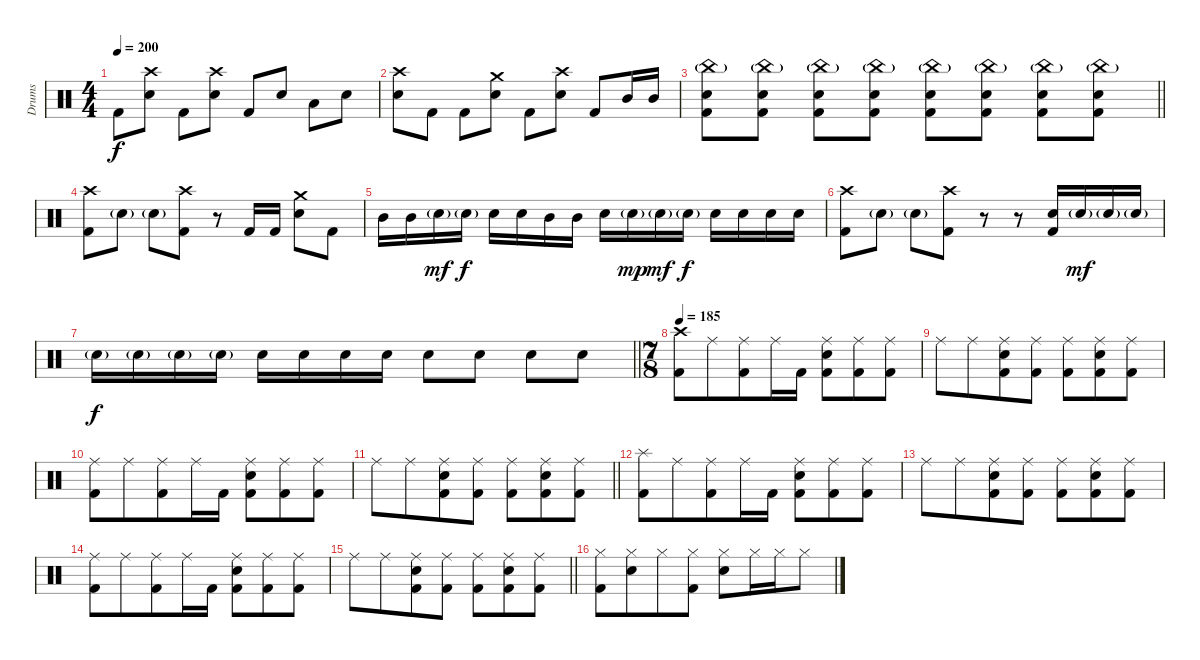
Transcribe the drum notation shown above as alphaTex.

\track ("Drums" "Drums") {instrument percussion}
\staff {score}
\articulation defaults
\ts (4 4)
\tempo 200
\clef neutral
\ks c "Kick (hit) 2".8{dy f}
("Crash high (hit)" "Electric Snare (hit)").8 "Kick (hit) 2".8 ("Crash high (hit)" "Electric Snare (hit)").8 "Kick (hit) 2".8 "Electric Snare (hit)".8 "Low Tom (hit)".8 "Electric Snare (hit)".8 |
("Crash high (hit)" "Electric Snare (hit)").8 "Kick (hit) 2".8 "Kick (hit) 2".8 ("Crash medium (hit)" "Electric Snare (hit)").8 "Kick (hit) 2".8 ("Crash high (hit)" "Electric Snare (hit)").8 "Kick (hit) 2".8 "Mid Tom (hit)".16 "Mid Tom (hit)".16 |
\barLineRight lightlight
("China (hit)"{g} "Electric Snare (hit)" "Kick (hit) 2").8 ("China (hit)"{g} "Electric Snare (hit)" "Kick (hit) 2").8 ("China (hit)"{g} "Electric Snare (hit)" "Kick (hit) 2").8 ("China (hit)"{g} "Electric Snare (hit)" "Kick (hit) 2").8 ("China (hit)"{g} "Electric Snare (hit)" "Kick (hit) 2").8 ("China (hit)"{g} "Electric Snare (hit)" "Kick (hit) 2").8 ("China (hit)"{g} "Electric Snare (hit)" "Kick (hit) 2").8 ("China (hit)"{g} "Electric Snare (hit)" "Kick (hit) 2").8 |
("Crash high (hit)" "Kick (hit) 2").8 "Electric Snare (hit)"{g}.8 "Electric Snare (hit)"{g}.8 ("Crash high (hit)" "Kick (hit) 2").8 r.8 "Kick (hit) 2".16 "Kick (hit) 2".16 ("Crash medium (hit)" "Electric Snare (hit)").8 "Kick (hit) 2".8 |
"Mid Tom (hit)".16 "Mid Tom (hit)".16 "Electric Snare (hit)"{g}.16{dy mf} "Electric Snare (hit)"{g}.16{dy f} "Electric Snare (hit)".16 "Electric Snare (hit)".16 "Mid Tom (hit)".16 "Mid Tom (hit)".16 "Electric Snare (hit)".16 "Electric Snare (hit)"{g}.16{dy mp} "Electric Snare (hit)"{g}.16{dy mf} "Electric Snare (hit)"{g}.16{dy f} "Electric Snare (hit)".16 "Electric Snare (hit)".16 "Electric Snare (hit)".16 "Electric Snare (hit)".16 |
("Crash high (hit)" "Kick (hit) 2").8 "Electric Snare (hit)"{g}.8 "Electric Snare (hit)"{g}.8 ("Crash high (hit)" "Kick (hit) 2").8 r.8 r.8 ("Electric Snare (hit)" "Kick (hit) 2").16 "Electric Snare (hit)"{g}.16{dy mf} "Electric Snare (hit)"{g}.16 "Electric Snare (hit)"{g}.16 |
\barLineRight lightlight "Electric Snare (hit)"{g}.16{dy f} "Electric Snare (hit)"{g}.16 "Electric Snare (hit)"{g}.16 "Electric Snare (hit)"{g}.16 "Electric Snare (hit)".16 "Electric Snare (hit)".16 "Electric Snare (hit)".16 "Electric Snare (hit)".16 "Electric Snare (hit)".8 "Electric Snare (hit)".8 "Electric Snare (hit)".8 "Electric Snare (hit)".8
|
\ts (7 8)
\tempo 185
("Crash high (hit)" "Kick (hit) 2").8 "Ride (middle)".8 ("Ride (middle)" "Kick (hit) 2").8 "Ride (middle)".16 "Kick (hit) 2".16 ("Ride (middle)" "Electric Snare (hit)" "Kick (hit) 2").8 ("Ride (middle)" "Kick (hit) 2").8 ("Ride (middle)" "Kick (hit) 2").8 |
"Ride (middle)".8 "Ride (middle)".8 ("Ride (middle)" "Electric Snare (hit)" "Kick (hit) 2").8 ("Ride (middle)" "Kick (hit) 2").8 ("Ride (middle)" "Kick (hit) 2").8 ("Ride (middle)" "Electric Snare (hit)" "Kick (hit) 2").8 ("Ride (middle)" "Kick (hit) 2").8 |
("Ride (middle)" "Kick (hit) 2").8 "Ride (middle)".8 ("Ride (middle)" "Kick (hit) 2").8 "Ride (middle)".16 "Kick (hit) 2".16 ("Ride (middle)" "Electric Snare (hit)" "Kick (hit) 2").8 ("Ride (middle)" "Kick (hit) 2").8 ("Ride (middle)" "Kick (hit) 2").8 |
\barLineRight lightlight "Ride (middle)".8 "Ride (middle)".8
("Ride (middle)" "Electric Snare (hit)" "Kick (hit) 2").8 ("Ride (middle)" "Kick (hit) 2").8 ("Ride (middle)" "Kick (hit) 2").8 ("Ride (middle)" "Electric Snare (hit)" "Kick (hit) 2").8 ("Ride (middle)" "Kick (hit) 2").8 |
("Splash (hit)" "Kick (hit) 2").8 "Ride (middle)".8 ("Ride (middle)" "Kick (hit) 2").8 "Ride (middle)".16 "Kick (hit) 2".16 ("Ride (middle)" "Electric Snare (hit)" "Kick (hit) 2").8 ("Ride (middle)" "Kick (hit) 2").8 ("Ride (middle)" "Kick (hit) 2").8 |
"Ride (middle)".8 "Ride (middle)".8 ("Ride (middle)" "Electric Snare (hit)" "Kick (hit) 2").8 ("Ride (middle)" "Kick (hit) 2").8 ("Ride (middle)" "Kick (hit) 2").8 ("Ride (middle)" "Electric Snare (hit)" "Kick (hit) 2").8 ("Ride (middle)" "Kick (hit) 2").8 |
("Ride (middle)" "Kick (hit) 2").8 "Ride (middle)".8 ("Ride (middle)" "Kick (hit) 2").8 "Ride (middle)".16 "Kick (hit) 2".16 ("Ride (middle)" "Electric Snare (hit)" "Kick (hit) 2").8 ("Ride (middle)" "Kick (hit) 2").8 ("Ride (middle)" "Kick (hit) 2").8 |
\barLineRight lightlight "Ride (middle)".8 "Ride (middle)".8
("Ride (middle)" "Electric Snare (hit)" "Kick (hit) 2").8 ("Ride (middle)" "Kick (hit) 2").8 ("Ride (middle)" "Kick (hit) 2").8 ("Ride (middle)" "Electric Snare (hit)" "Kick (hit) 2").8 ("Ride (middle)" "Kick (hit) 2").8 |
("Hi-Hat (closed)" "Kick (hit) 2").8 ("Hi-Hat (closed)" "Electric Snare (hit)").8 "Hi-Hat (closed)".8 ("Hi-Hat (closed)" "Kick (hit) 2").8 ("Hi-Hat (closed)" "Electric Snare (hit)").8 "Hi-Hat (closed)".16 "Hi-Hat (closed)".16 "Hi-Hat (closed)".8
